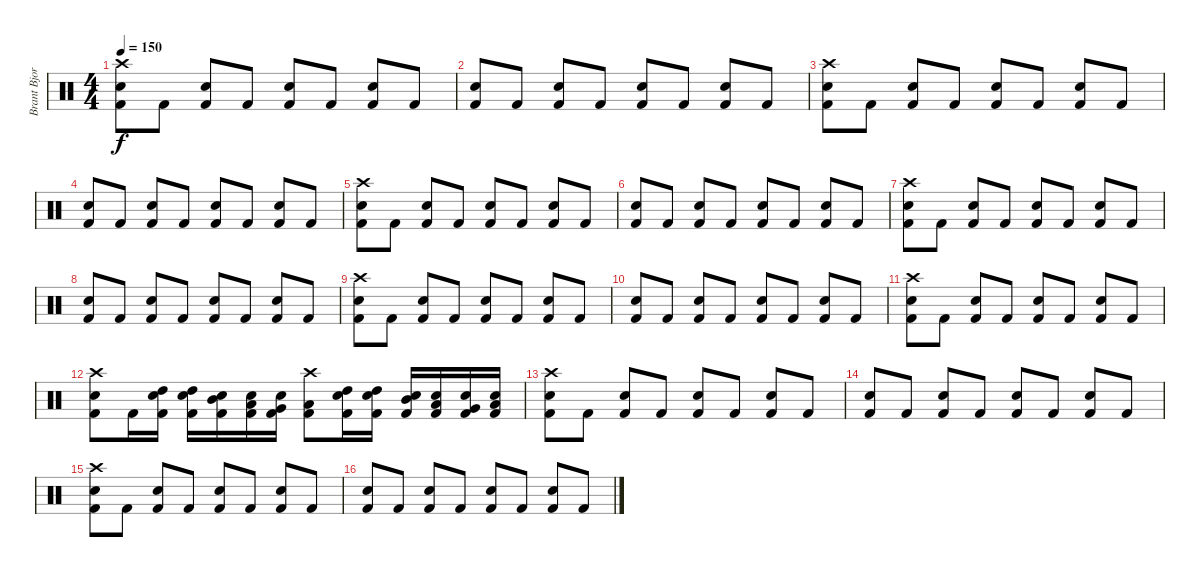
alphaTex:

\track ("Brant Bjork" "Brant Bjor") {instrument percussion}
\staff {score}
\articulation defaults
\ts (4 4)
\tempo 150
\clef neutral
\ks c
("Crash high (hit)" "Electric Snare (hit)" "Kick (hit) 2").8{dy f} "Kick (hit) 2".8 ("Electric Snare (hit)" "Kick (hit) 2").8 "Kick (hit) 2".8 ("Electric Snare (hit)" "Kick (hit) 2").8 "Kick (hit) 2".8 ("Electric Snare (hit)" "Kick (hit) 2").8 "Kick (hit) 2".8 |
("Electric Snare (hit)" "Kick (hit) 2").8 "Kick (hit) 2".8 ("Electric Snare (hit)" "Kick (hit) 2").8 "Kick (hit) 2".8 ("Electric Snare (hit)" "Kick (hit) 2").8 "Kick (hit) 2".8 ("Electric Snare (hit)" "Kick (hit) 2").8 "Kick (hit) 2".8 |
("Crash high (hit)" "Electric Snare (hit)" "Kick (hit) 2").8 "Kick (hit) 2".8 ("Electric Snare (hit)" "Kick (hit) 2").8 "Kick (hit) 2".8 ("Electric Snare (hit)" "Kick (hit) 2").8 "Kick (hit) 2".8 ("Electric Snare (hit)" "Kick (hit) 2").8 "Kick (hit) 2".8 |
("Electric Snare (hit)" "Kick (hit) 2").8 "Kick (hit) 2".8 ("Electric Snare (hit)" "Kick (hit) 2").8 "Kick (hit) 2".8 ("Electric Snare (hit)" "Kick (hit) 2").8 "Kick (hit) 2".8 ("Electric Snare (hit)" "Kick (hit) 2").8 "Kick (hit) 2".8 |
("Crash high (hit)" "Electric Snare (hit)" "Kick (hit) 2").8 "Kick (hit) 2".8 ("Electric Snare (hit)" "Kick (hit) 2").8 "Kick (hit) 2".8 ("Electric Snare (hit)" "Kick (hit) 2").8 "Kick (hit) 2".8 ("Electric Snare (hit)" "Kick (hit) 2").8 "Kick (hit) 2".8 |
("Electric Snare (hit)" "Kick (hit) 2").8 "Kick (hit) 2".8 ("Electric Snare (hit)" "Kick (hit) 2").8 "Kick (hit) 2".8 ("Electric Snare (hit)" "Kick (hit) 2").8 "Kick (hit) 2".8 ("Electric Snare (hit)" "Kick (hit) 2").8 "Kick (hit) 2".8 |
("Crash high (hit)" "Electric Snare (hit)" "Kick (hit) 2").8 "Kick (hit) 2".8 ("Electric Snare (hit)" "Kick (hit) 2").8 "Kick (hit) 2".8 ("Electric Snare (hit)" "Kick (hit) 2").8 "Kick (hit) 2".8 ("Electric Snare (hit)" "Kick (hit) 2").8 "Kick (hit) 2".8 |
("Electric Snare (hit)" "Kick (hit) 2").8 "Kick (hit) 2".8 ("Electric Snare (hit)" "Kick (hit) 2").8 "Kick (hit) 2".8 ("Electric Snare (hit)" "Kick (hit) 2").8 "Kick (hit) 2".8 ("Electric Snare (hit)" "Kick (hit) 2").8 "Kick (hit) 2".8 |
("Crash high (hit)" "Electric Snare (hit)" "Kick (hit) 2").8 "Kick (hit) 2".8 ("Electric Snare (hit)" "Kick (hit) 2").8 "Kick (hit) 2".8 ("Electric Snare (hit)" "Kick (hit) 2").8 "Kick (hit) 2".8 ("Electric Snare (hit)" "Kick (hit) 2").8 "Kick (hit) 2".8 |
("Electric Snare (hit)" "Kick (hit) 2").8 "Kick (hit) 2".8 ("Electric Snare (hit)" "Kick (hit) 2").8 "Kick (hit) 2".8 ("Electric Snare (hit)" "Kick (hit) 2").8 "Kick (hit) 2".8 ("Electric Snare (hit)" "Kick (hit) 2").8 "Kick (hit) 2".8 |
("Crash high (hit)" "Electric Snare (hit)" "Kick (hit) 2").8 "Kick (hit) 2".8 ("Electric Snare (hit)" "Kick (hit) 2").8 "Kick (hit) 2".8 ("Electric Snare (hit)" "Kick (hit) 2").8 "Kick (hit) 2".8 ("Electric Snare (hit)" "Kick (hit) 2").8 "Kick (hit) 2".8 |
("Crash high (hit)" "Electric Snare (hit)" "Kick (hit) 2").8 "Kick (hit) 2".16 ("Electric Snare (hit)" "High Tom (hit)" "Kick (hit) 2").16 ("Electric Snare (hit)" "High Tom (hit)" "Kick (hit) 2").16 ("Electric Snare (hit)" "Mid Tom (hit)" "Kick (hit) 2").16 ("Electric Snare (hit)" "Low Tom (hit)" "Kick (hit) 2").16 ("Electric Snare (hit)" "Very Low Tom (hit)" "Kick (hit) 2").16 ("Crash high (hit)" "Low Floor Tom (hit)" "Kick (hit) 2").8 ("Electric Snare (hit)" "High Tom (hit)" "Kick (hit) 2").16 ("Electric Snare (hit)" "High Tom (hit)" "Kick (hit) 2").16 ("Electric Snare (hit)" "Mid Tom (hit)" "Kick (hit) 2").16 ("Electric Snare (hit)" "Low Tom (hit)" "Kick (hit) 2").16 ("Electric Snare (hit)" "Very Low Tom (hit)" "Kick (hit) 2").16 ("Electric Snare (hit)" "Low Floor Tom (hit)" "Kick (hit) 2").16 |
("Crash high (hit)" "Electric Snare (hit)" "Kick (hit) 2").8 "Kick (hit) 2".8 ("Electric Snare (hit)" "Kick (hit) 2").8 "Kick (hit) 2".8 ("Electric Snare (hit)" "Kick (hit) 2").8 "Kick (hit) 2".8 ("Electric Snare (hit)" "Kick (hit) 2").8 "Kick (hit) 2".8 |
("Electric Snare (hit)" "Kick (hit) 2").8 "Kick (hit) 2".8 ("Electric Snare (hit)" "Kick (hit) 2").8 "Kick (hit) 2".8 ("Electric Snare (hit)" "Kick (hit) 2").8 "Kick (hit) 2".8 ("Electric Snare (hit)" "Kick (hit) 2").8 "Kick (hit) 2".8 |
("Crash high (hit)" "Electric Snare (hit)" "Kick (hit) 2").8 "Kick (hit) 2".8 ("Electric Snare (hit)" "Kick (hit) 2").8 "Kick (hit) 2".8 ("Electric Snare (hit)" "Kick (hit) 2").8 "Kick (hit) 2".8 ("Electric Snare (hit)" "Kick (hit) 2").8 "Kick (hit) 2".8 |
("Electric Snare (hit)" "Kick (hit) 2").8 "Kick (hit) 2".8 ("Electric Snare (hit)" "Kick (hit) 2").8 "Kick (hit) 2".8 ("Electric Snare (hit)" "Kick (hit) 2").8 "Kick (hit) 2".8 ("Electric Snare (hit)" "Kick (hit) 2").8 "Kick (hit) 2".8
